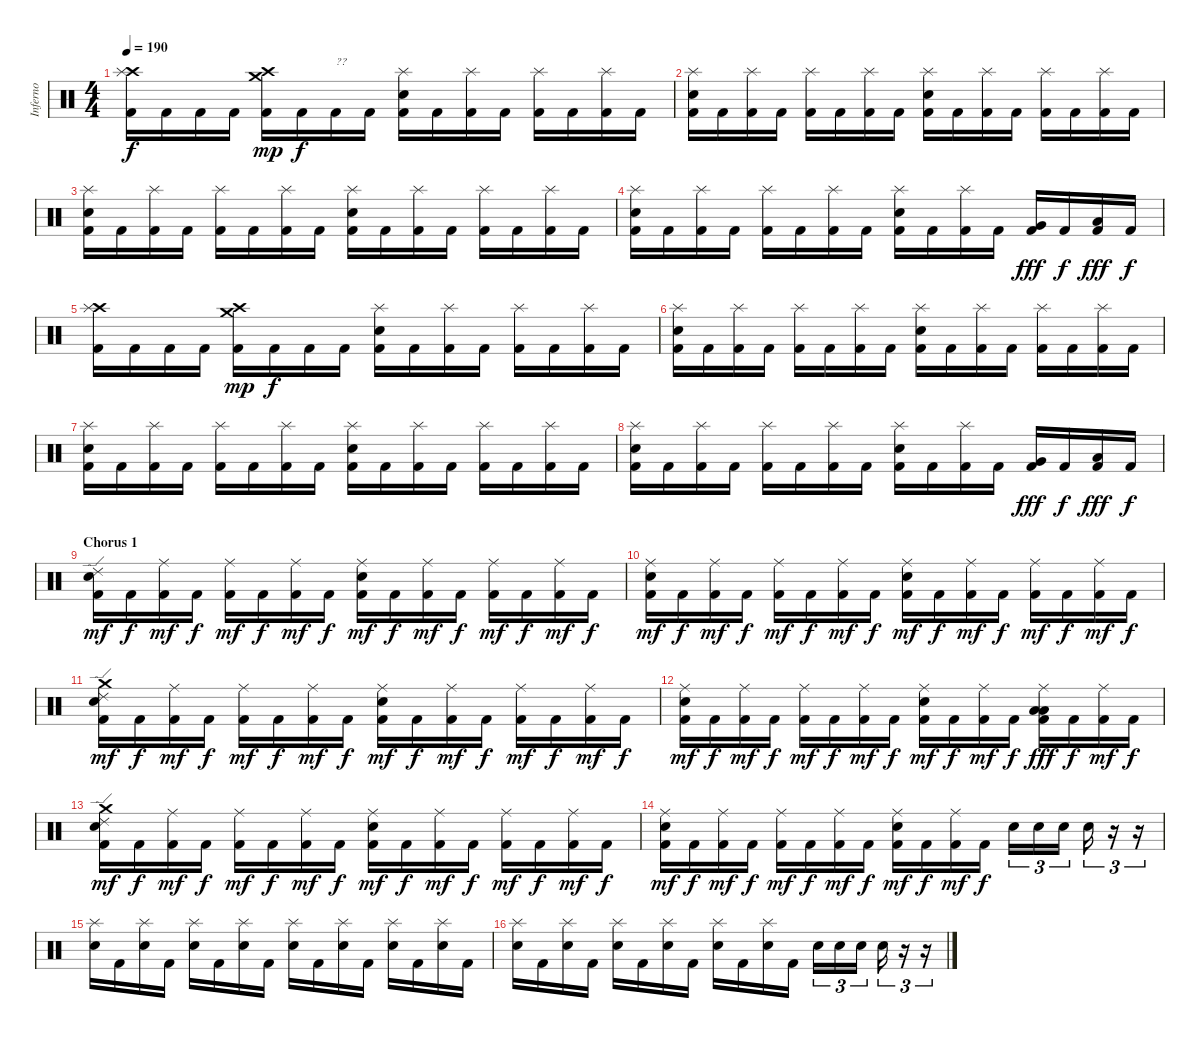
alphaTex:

\track ("Inferno" "Inferno") {instrument percussion}
\staff {score}
\articulation defaults
\ts (4 4)
\tempo 190
\clef neutral
\ks c
("Crash high (hit)" "Splash (hit)" "Kick (hit) 2").16{dy f} "Kick (hit) 2".16 "Kick (hit) 2".16 "Kick (hit) 2".16 ("Crash high (hit)" "Crash medium (hit)" "Kick (hit) 2").16{dy mp} "Kick (hit) 2".16{dy f} "Kick (hit) 2".16{txt "??"} "Kick (hit) 2".16 ("Splash (hit)" "Snare (hit) 2" "Kick (hit) 2").16 "Kick (hit) 2".16 ("Splash (hit)" "Kick (hit) 2").16 "Kick (hit) 2".16 ("Splash (hit)" "Kick (hit) 2").16 "Kick (hit) 2".16 ("Splash (hit)" "Kick (hit) 2").16 "Kick (hit) 2".16 |
("Splash (hit)" "Snare (hit) 2" "Kick (hit) 2").16 "Kick (hit) 2".16 ("Splash (hit)" "Kick (hit) 2").16 "Kick (hit) 2".16 ("Splash (hit)" "Kick (hit) 2").16 "Kick (hit) 2".16 ("Splash (hit)" "Kick (hit) 2").16 "Kick (hit) 2".16 ("Splash (hit)" "Snare (hit) 2" "Kick (hit) 2").16 "Kick (hit) 2".16 ("Splash (hit)" "Kick (hit) 2").16 "Kick (hit) 2".16 ("Splash (hit)" "Kick (hit) 2").16 "Kick (hit) 2".16 ("Splash (hit)" "Kick (hit) 2").16 "Kick (hit) 2".16 |
("Splash (hit)" "Snare (hit) 2" "Kick (hit) 2").16 "Kick (hit) 2".16 ("Splash (hit)" "Kick (hit) 2").16 "Kick (hit) 2".16 ("Splash (hit)" "Kick (hit) 2").16 "Kick (hit) 2".16 ("Splash (hit)" "Kick (hit) 2").16 "Kick (hit) 2".16 ("Splash (hit)" "Snare (hit) 2" "Kick (hit) 2").16 "Kick (hit) 2".16 ("Splash (hit)" "Kick (hit) 2").16 "Kick (hit) 2".16 ("Splash (hit)" "Kick (hit) 2").16 "Kick (hit) 2".16 ("Splash (hit)" "Kick (hit) 2").16 "Kick (hit) 2".16 |
("Splash (hit)" "Snare (hit) 2" "Kick (hit) 2").16 "Kick (hit) 2".16 ("Splash (hit)" "Kick (hit) 2").16 "Kick (hit) 2".16 ("Splash (hit)" "Kick (hit) 2").16 "Kick (hit) 2".16 ("Splash (hit)" "Kick (hit) 2").16 "Kick (hit) 2".16 ("Splash (hit)" "Snare (hit) 2" "Kick (hit) 2").16 "Kick (hit) 2".16 ("Splash (hit)" "Kick (hit) 2").16 "Kick (hit) 2".16 ("Very Low Tom (hit)" "Kick (hit) 2").16{dy fff} "Kick (hit) 2".16{dy f} ("Low Floor Tom (hit)" "Kick (hit) 2").16{dy fff} "Kick (hit) 2".16{dy f} |
("Crash high (hit)" "Splash (hit)" "Kick (hit) 2").16 "Kick (hit) 2".16 "Kick (hit) 2".16 "Kick (hit) 2".16 ("Crash high (hit)" "Crash medium (hit)" "Kick (hit) 2").16{dy mp} "Kick (hit) 2".16{dy f} "Kick (hit) 2".16 "Kick (hit) 2".16 ("Splash (hit)" "Snare (hit) 2" "Kick (hit) 2").16 "Kick (hit) 2".16 ("Splash (hit)" "Kick (hit) 2").16 "Kick (hit) 2".16 ("Splash (hit)" "Kick (hit) 2").16 "Kick (hit) 2".16 ("Splash (hit)" "Kick (hit) 2").16 "Kick (hit) 2".16 |
("Splash (hit)" "Snare (hit) 2" "Kick (hit) 2").16 "Kick (hit) 2".16 ("Splash (hit)" "Kick (hit) 2").16 "Kick (hit) 2".16 ("Splash (hit)" "Kick (hit) 2").16 "Kick (hit) 2".16 ("Splash (hit)" "Kick (hit) 2").16 "Kick (hit) 2".16 ("Splash (hit)" "Snare (hit) 2" "Kick (hit) 2").16 "Kick (hit) 2".16 ("Splash (hit)" "Kick (hit) 2").16 "Kick (hit) 2".16 ("Splash (hit)" "Kick (hit) 2").16 "Kick (hit) 2".16 ("Splash (hit)" "Kick (hit) 2").16 "Kick (hit) 2".16 |
("Splash (hit)" "Snare (hit) 2" "Kick (hit) 2").16 "Kick (hit) 2".16 ("Splash (hit)" "Kick (hit) 2").16 "Kick (hit) 2".16 ("Splash (hit)" "Kick (hit) 2").16 "Kick (hit) 2".16 ("Splash (hit)" "Kick (hit) 2").16 "Kick (hit) 2".16 ("Splash (hit)" "Snare (hit) 2" "Kick (hit) 2").16 "Kick (hit) 2".16 ("Splash (hit)" "Kick (hit) 2").16 "Kick (hit) 2".16 ("Splash (hit)" "Kick (hit) 2").16 "Kick (hit) 2".16 ("Splash (hit)" "Kick (hit) 2").16 "Kick (hit) 2".16 |
("Splash (hit)" "Snare (hit) 2" "Kick (hit) 2").16 "Kick (hit) 2".16 ("Splash (hit)" "Kick (hit) 2").16 "Kick (hit) 2".16 ("Splash (hit)" "Kick (hit) 2").16 "Kick (hit) 2".16 ("Splash (hit)" "Kick (hit) 2").16 "Kick (hit) 2".16 ("Splash (hit)" "Snare (hit) 2" "Kick (hit) 2").16 "Kick (hit) 2".16 ("Splash (hit)" "Kick (hit) 2").16 "Kick (hit) 2".16 ("Very Low Tom (hit)" "Kick (hit) 2").16{dy fff} "Kick (hit) 2".16{dy f} ("Low Floor Tom (hit)" "Kick (hit) 2").16{dy fff} "Kick (hit) 2".16{dy f} |
\section ("" "Chorus 1")
("Ride (edge) 2" "Snare (hit) 2" "Kick (hit) 2").16{dy mf} "Kick (hit) 2".16{dy f} ("Ride (middle)" "Kick (hit) 2").16{dy mf} "Kick (hit) 2".16{dy f} ("Ride (middle)" "Kick (hit) 2").16{dy mf} "Kick (hit) 2".16{dy f} ("Ride (middle)" "Kick (hit) 2").16{dy mf} "Kick (hit) 2".16{dy f} ("Ride (middle)" "Snare (hit) 2" "Kick (hit) 2").16{dy mf} "Kick (hit) 2".16{dy f} ("Ride (middle)" "Kick (hit) 2").16{dy mf} "Kick (hit) 2".16{dy f} ("Ride (middle)" "Kick (hit) 2").16{dy mf} "Kick (hit) 2".16{dy f} ("Ride (middle)" "Kick (hit) 2").16{dy mf} "Kick (hit) 2".16{dy f} |
("Ride (middle)" "Snare (hit) 2" "Kick (hit) 2").16{dy mf} "Kick (hit) 2".16{dy f} ("Ride (middle)" "Kick (hit) 2").16{dy mf} "Kick (hit) 2".16{dy f} ("Ride (middle)" "Kick (hit) 2").16{dy mf} "Kick (hit) 2".16{dy f} ("Ride (middle)" "Kick (hit) 2").16{dy mf} "Kick (hit) 2".16{dy f} ("Ride (middle)" "Snare (hit) 2" "Kick (hit) 2").16{dy mf} "Kick (hit) 2".16{dy f} ("Ride (middle)" "Kick (hit) 2").16{dy mf} "Kick (hit) 2".16{dy f} ("Ride (middle)" "Kick (hit) 2").16{dy mf} "Kick (hit) 2".16{dy f} ("Ride (middle)" "Kick (hit) 2").16{dy mf} "Kick (hit) 2".16{dy f} |
("Ride (edge) 2" "Crash medium (hit)" "Snare (hit) 2" "Kick (hit) 2").16{dy mf} "Kick (hit) 2".16{dy f} ("Ride (middle)" "Kick (hit) 2").16{dy mf} "Kick (hit) 2".16{dy f} ("Ride (middle)" "Kick (hit) 2").16{dy mf} "Kick (hit) 2".16{dy f} ("Ride (middle)" "Kick (hit) 2").16{dy mf} "Kick (hit) 2".16{dy f} ("Ride (middle)" "Snare (hit) 2" "Kick (hit) 2").16{dy mf} "Kick (hit) 2".16{dy f} ("Ride (middle)" "Kick (hit) 2").16{dy mf} "Kick (hit) 2".16{dy f} ("Ride (middle)" "Kick (hit) 2").16{dy mf} "Kick (hit) 2".16{dy f} ("Ride (middle)" "Kick (hit) 2").16{dy mf} "Kick (hit) 2".16{dy f} |
("Ride (middle)" "Snare (hit) 2" "Kick (hit) 2").16{dy mf} "Kick (hit) 2".16{dy f} ("Ride (middle)" "Kick (hit) 2").16{dy mf} "Kick (hit) 2".16{dy f} ("Ride (middle)" "Kick (hit) 2").16{dy mf} "Kick (hit) 2".16{dy f} ("Ride (middle)" "Kick (hit) 2").16{dy mf} "Kick (hit) 2".16{dy f} ("Ride (middle)" "Snare (hit) 2" "Kick (hit) 2").16{dy mf} "Kick (hit) 2".16{dy f} ("Ride (middle)" "Kick (hit) 2").16{dy mf} "Kick (hit) 2".16{dy f} ("Ride (middle)" "Low Floor Tom (hit)" "Low Floor Tom (hit)" "Kick (hit) 2").16{dy fff} "Kick (hit) 2".16{dy f} ("Ride (middle)" "Kick (hit) 2").16{dy mf} "Kick (hit) 2".16{dy f} |
("Ride (edge) 2" "Crash medium (hit)" "Snare (hit) 2" "Kick (hit) 2").16{dy mf} "Kick (hit) 2".16{dy f} ("Ride (middle)" "Kick (hit) 2").16{dy mf} "Kick (hit) 2".16{dy f} ("Ride (middle)" "Kick (hit) 2").16{dy mf} "Kick (hit) 2".16{dy f} ("Ride (middle)" "Kick (hit) 2").16{dy mf} "Kick (hit) 2".16{dy f} ("Ride (middle)" "Snare (hit) 2" "Kick (hit) 2").16{dy mf} "Kick (hit) 2".16{dy f} ("Ride (middle)" "Kick (hit) 2").16{dy mf} "Kick (hit) 2".16{dy f} ("Ride (middle)" "Kick (hit) 2").16{dy mf} "Kick (hit) 2".16{dy f} ("Ride (middle)" "Kick (hit) 2").16{dy mf} "Kick (hit) 2".16{dy f} |
("Ride (middle)" "Snare (hit) 2" "Kick (hit) 2").16{dy mf} "Kick (hit) 2".16{dy f} ("Ride (middle)" "Kick (hit) 2").16{dy mf} "Kick (hit) 2".16{dy f} ("Ride (middle)" "Kick (hit) 2").16{dy mf} "Kick (hit) 2".16{dy f} ("Ride (middle)" "Kick (hit) 2").16{dy mf} "Kick (hit) 2".16{dy f} ("Ride (middle)" "Snare (hit) 2" "Kick (hit) 2").16{dy mf} "Kick (hit) 2".16{dy f} ("Ride (middle)" "Kick (hit) 2").16{dy mf} "Kick (hit) 2".16{dy f} "Snare (hit) 2".16{tu (3 2)} "Snare (hit) 2".16{tu (3 2)} "Snare (hit) 2".16{tu (3 2)} "Snare (hit) 2".16{tu (3 2)} r.16{tu (3 2)} r.16{tu (3 2)} |
("Splash (hit)" "Snare (hit) 2").16 "Kick (hit) 2".16 ("Splash (hit)" "Snare (hit) 2").16 "Kick (hit) 2".16 ("Splash (hit)" "Snare (hit) 2").16 "Kick (hit) 2".16 ("Splash (hit)" "Snare (hit) 2").16 "Kick (hit) 2".16 ("Splash (hit)" "Snare (hit) 2").16 "Kick (hit) 2".16 ("Splash (hit)" "Snare (hit) 2").16 "Kick (hit) 2".16 ("Splash (hit)" "Snare (hit) 2").16 "Kick (hit) 2".16 ("Splash (hit)" "Snare (hit) 2").16 "Kick (hit) 2".16 |
("Splash (hit)" "Snare (hit) 2").16 "Kick (hit) 2".16 ("Splash (hit)" "Snare (hit) 2").16 "Kick (hit) 2".16 ("Splash (hit)" "Snare (hit) 2").16 "Kick (hit) 2".16 ("Splash (hit)" "Snare (hit) 2").16 "Kick (hit) 2".16 ("Splash (hit)" "Snare (hit) 2").16 "Kick (hit) 2".16 ("Splash (hit)" "Snare (hit) 2").16 "Kick (hit) 2".16 "Snare (hit) 2".16{tu (3 2)} "Snare (hit) 2".16{tu (3 2)} "Snare (hit) 2".16{tu (3 2)} "Snare (hit) 2".16{tu (3 2)} r.16{tu (3 2)} r.16{tu (3 2)}
